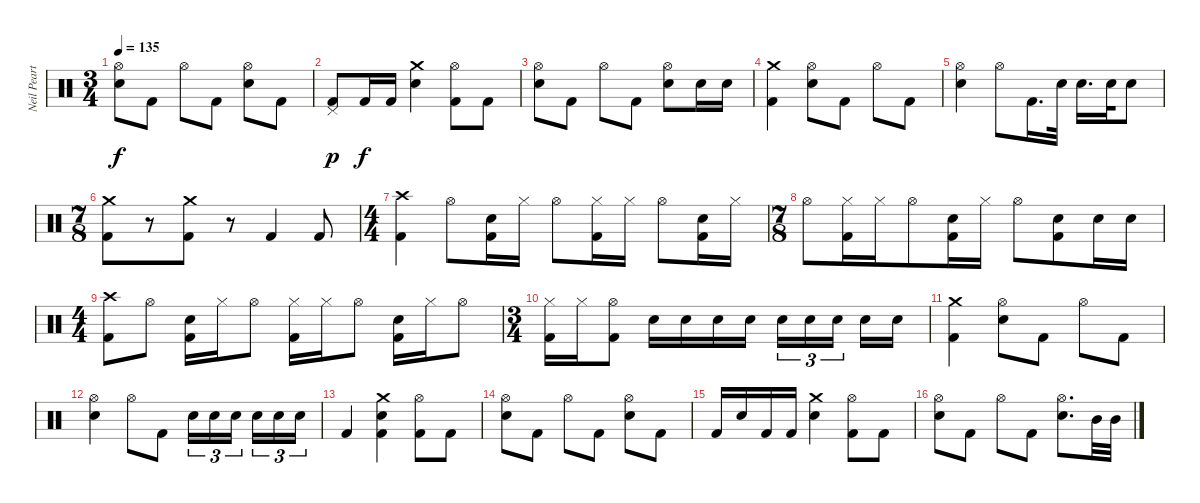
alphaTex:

\track ("Neil Peart" "Neil Peart") {instrument percussion}
\staff {score}
\articulation defaults
\ts (3 4)
\tempo 135
\clef neutral
\ks c
("Hi-Hat (open)" "Snare (hit) 2").8{dy f} "Kick (hit) 2".8 "Hi-Hat (open)".8 "Kick (hit) 2".8 ("Hi-Hat (open)" "Snare (hit) 2").8 "Kick (hit) 2".8 |
("Kick (hit) 2" "Pedal Hi-Hat (hit)").8{dy p} "Kick (hit) 2".16{dy f} "Kick (hit) 2".16 ("Crash medium (hit)" "Snare (hit) 2").4 ("Hi-Hat (open)" "Kick (hit) 2").8 "Kick (hit) 2".8 |
("Hi-Hat (open)" "Snare (hit) 2").8 "Kick (hit) 2".8 "Hi-Hat (open)".8 "Kick (hit) 2".8 ("Hi-Hat (open)" "Snare (hit) 2").8 "Snare (hit) 2".16 "Snare (hit) 2".16 |
("Crash medium (hit)" "Kick (hit) 2").4 ("Hi-Hat (open)" "Snare (hit) 2").8 "Kick (hit) 2".8 "Hi-Hat (open)".8 "Kick (hit) 2".8 |
("Hi-Hat (open)" "Snare (hit) 2").4 "Hi-Hat (open)".8 "Kick (hit) 2".16{d} "Snare (hit) 2".32 "Snare (hit) 2".16{d} "Snare (hit) 2".32 "Snare (hit) 2".8 |
\ts (7 8)
("Crash medium (hit)" "Kick (hit) 2").8 r.8{volume 0} ("Crash medium (hit)" "Kick (hit) 2").8{volume 14} r.8 "Kick (hit) 2".4 "Kick (hit) 2".8 |
\ts (4 4)
("Crash high (hit)" "Kick (hit) 2").4{volume 14} "Hi-Hat (open)".8 ("Snare (hit) 2" "Kick (hit) 2").16 "Hi-Hat (closed)".16 "Hi-Hat (open)".8 ("Hi-Hat (closed)" "Kick (hit) 2").16 "Hi-Hat (closed)".16 "Hi-Hat (open)".8 ("Snare (hit) 2" "Kick (hit) 2").16 "Hi-Hat (closed)".16 |
\ts (7 8)
"Hi-Hat (open)".8 ("Hi-Hat (closed)" "Kick (hit) 2").16 "Hi-Hat (closed)".16 "Hi-Hat (open)".8 ("Snare (hit) 2" "Kick (hit) 2").16 "Hi-Hat (closed)".16 "Hi-Hat (open)".8 ("Snare (hit) 2" "Kick (hit) 2").8 "Snare (hit) 2".16 "Snare (hit) 2".16 |
\ts (4 4)
("Crash high (hit)" "Kick (hit) 2").8 "Hi-Hat (open)".8 ("Snare (hit) 2" "Kick (hit) 2").16 "Hi-Hat (closed)".16 "Hi-Hat (open)".8 ("Hi-Hat (closed)" "Kick (hit) 2").16 "Hi-Hat (closed)".16 "Hi-Hat (open)".8 ("Snare (hit) 2" "Kick (hit) 2").16 "Hi-Hat (closed)".16 "Hi-Hat (open)".8 |
\ts (3 4)
("Hi-Hat (closed)" "Kick (hit) 2").16 "Hi-Hat (closed)".16 ("Hi-Hat (open)" "Kick (hit) 2").8 "Snare (hit) 2".16 "Snare (hit) 2".16 "Snare (hit) 2".16 "Snare (hit) 2".16 "Snare (hit) 2".16{tu (3 2)} "Snare (hit) 2".16{tu (3 2)} "Snare (hit) 2".16{tu (3 2) beam splitsecondary} "Snare (hit) 2".16 "Snare (hit) 2".16 |
("Crash medium (hit)" "Kick (hit) 2").4 ("Hi-Hat (open)" "Snare (hit) 2").8 "Kick (hit) 2".8 "Hi-Hat (open)".8 "Kick (hit) 2".8 |
("Hi-Hat (open)" "Snare (hit) 2").4 "Hi-Hat (open)".8 "Kick (hit) 2".8 "Snare (hit) 2".16{tu (3 2)} "Snare (hit) 2".16{tu (3 2)} "Snare (hit) 2".16{tu (3 2) beam splitsecondary} "Snare (hit) 2".16{tu (3 2)} "Snare (hit) 2".16{tu (3 2)} "Snare (hit) 2".16{tu (3 2)} |
"Kick (hit) 2".4 ("Crash medium (hit)" "Snare (hit) 2" "Kick (hit) 2").4 ("Hi-Hat (open)" "Kick (hit) 2").8 "Kick (hit) 2".8 |
("Hi-Hat (open)" "Snare (hit) 2").8 "Kick (hit) 2".8 "Hi-Hat (open)".8 "Kick (hit) 2".8 ("Hi-Hat (open)" "Snare (hit) 2").8 "Kick (hit) 2".8 |
"Kick (hit) 2".16 "Snare (hit) 2".16 "Kick (hit) 2".16 "Kick (hit) 2".16 ("Crash medium (hit)" "Snare (hit) 2").4 ("Hi-Hat (open)" "Kick (hit) 2").8 "Kick (hit) 2".8 |
("Hi-Hat (open)" "Snare (hit) 2").8 "Kick (hit) 2".8 "Hi-Hat (open)".8 "Kick (hit) 2".8 ("Hi-Hat (open)" "Snare (hit) 2").8{d} "Mid Tom (hit)".32 "Mid Tom (hit)".32
